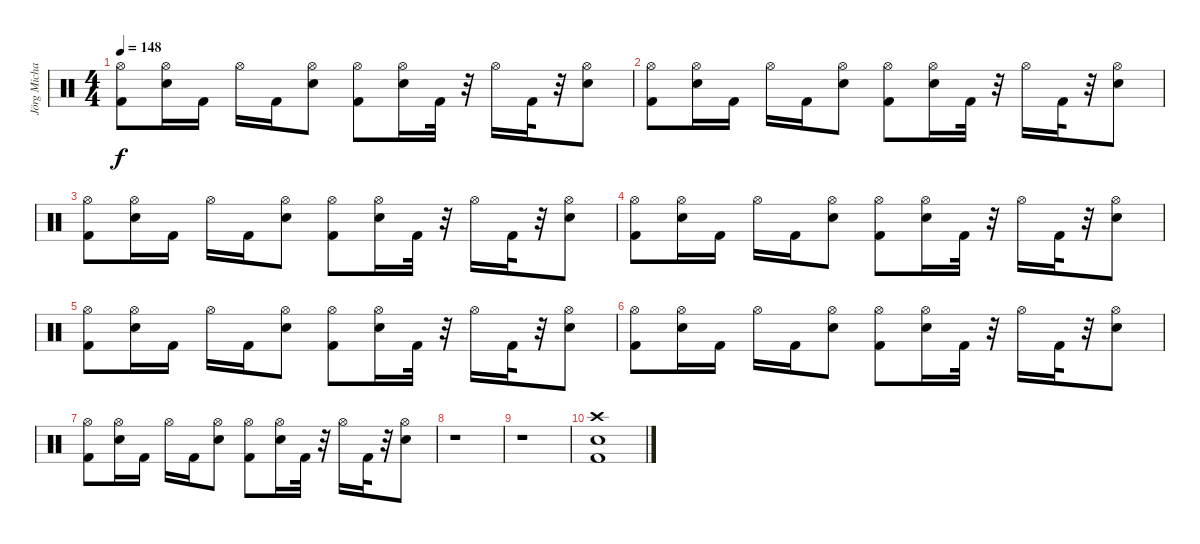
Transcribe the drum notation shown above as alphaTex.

\track ("Jörg Michael" "Jörg Micha") {instrument percussion}
\staff {score}
\articulation defaults
\ts (4 4)
\tempo 148
\clef neutral
\ks c
("Hi-Hat (open)" "Kick (hit) 2").8{dy f} ("Hi-Hat (open)" "Electric Snare (hit)").16 "Kick (hit) 2".16 "Hi-Hat (open)".16 "Kick (hit) 2".16 ("Hi-Hat (open)" "Electric Snare (hit)").8 ("Hi-Hat (open)" "Kick (hit) 2").8 ("Hi-Hat (open)" "Electric Snare (hit)").16 "Kick (hit) 2".32 r.32 "Hi-Hat (open)".16 "Kick (hit) 2".32 r.32 ("Hi-Hat (open)" "Electric Snare (hit)").8 |
("Hi-Hat (open)" "Kick (hit) 2").8 ("Hi-Hat (open)" "Electric Snare (hit)").16 "Kick (hit) 2".16 "Hi-Hat (open)".16 "Kick (hit) 2".16 ("Hi-Hat (open)" "Electric Snare (hit)").8 ("Hi-Hat (open)" "Kick (hit) 2").8 ("Hi-Hat (open)" "Electric Snare (hit)").16 "Kick (hit) 2".32 r.32 "Hi-Hat (open)".16 "Kick (hit) 2".32 r.32 ("Hi-Hat (open)" "Electric Snare (hit)").8 |
("Hi-Hat (open)" "Kick (hit) 2").8 ("Hi-Hat (open)" "Electric Snare (hit)").16 "Kick (hit) 2".16 "Hi-Hat (open)".16 "Kick (hit) 2".16 ("Hi-Hat (open)" "Electric Snare (hit)").8 ("Hi-Hat (open)" "Kick (hit) 2").8 ("Hi-Hat (open)" "Electric Snare (hit)").16 "Kick (hit) 2".32 r.32 "Hi-Hat (open)".16 "Kick (hit) 2".32 r.32 ("Hi-Hat (open)" "Electric Snare (hit)").8 |
("Hi-Hat (open)" "Kick (hit) 2").8 ("Hi-Hat (open)" "Electric Snare (hit)").16 "Kick (hit) 2".16 "Hi-Hat (open)".16 "Kick (hit) 2".16 ("Hi-Hat (open)" "Electric Snare (hit)").8 ("Hi-Hat (open)" "Kick (hit) 2").8 ("Hi-Hat (open)" "Electric Snare (hit)").16 "Kick (hit) 2".32 r.32 "Hi-Hat (open)".16 "Kick (hit) 2".32 r.32 ("Hi-Hat (open)" "Electric Snare (hit)").8 |
("Hi-Hat (open)" "Kick (hit) 2").8 ("Hi-Hat (open)" "Electric Snare (hit)").16 "Kick (hit) 2".16 "Hi-Hat (open)".16 "Kick (hit) 2".16 ("Hi-Hat (open)" "Electric Snare (hit)").8 ("Hi-Hat (open)" "Kick (hit) 2").8 ("Hi-Hat (open)" "Electric Snare (hit)").16 "Kick (hit) 2".32 r.32 "Hi-Hat (open)".16 "Kick (hit) 2".32 r.32 ("Hi-Hat (open)" "Electric Snare (hit)").8 |
("Hi-Hat (open)" "Kick (hit) 2").8 ("Hi-Hat (open)" "Electric Snare (hit)").16 "Kick (hit) 2".16 "Hi-Hat (open)".16 "Kick (hit) 2".16 ("Hi-Hat (open)" "Electric Snare (hit)").8 ("Hi-Hat (open)" "Kick (hit) 2").8 ("Hi-Hat (open)" "Electric Snare (hit)").16 "Kick (hit) 2".32 r.32 "Hi-Hat (open)".16 "Kick (hit) 2".32 r.32 ("Hi-Hat (open)" "Electric Snare (hit)").8 |
("Hi-Hat (open)" "Kick (hit) 2").8 ("Hi-Hat (open)" "Electric Snare (hit)").16 "Kick (hit) 2".16 "Hi-Hat (open)".16 "Kick (hit) 2".16 ("Hi-Hat (open)" "Electric Snare (hit)").8 ("Hi-Hat (open)" "Kick (hit) 2").8 ("Hi-Hat (open)" "Electric Snare (hit)").16 "Kick (hit) 2".32 r.32 "Hi-Hat (open)".16 "Kick (hit) 2".32 r.32 ("Hi-Hat (open)" "Electric Snare (hit)").8 |
r.1 |
r.1 |
("Kick (hit) 2" "Crash high (hit)" "Electric Snare (hit)").1
